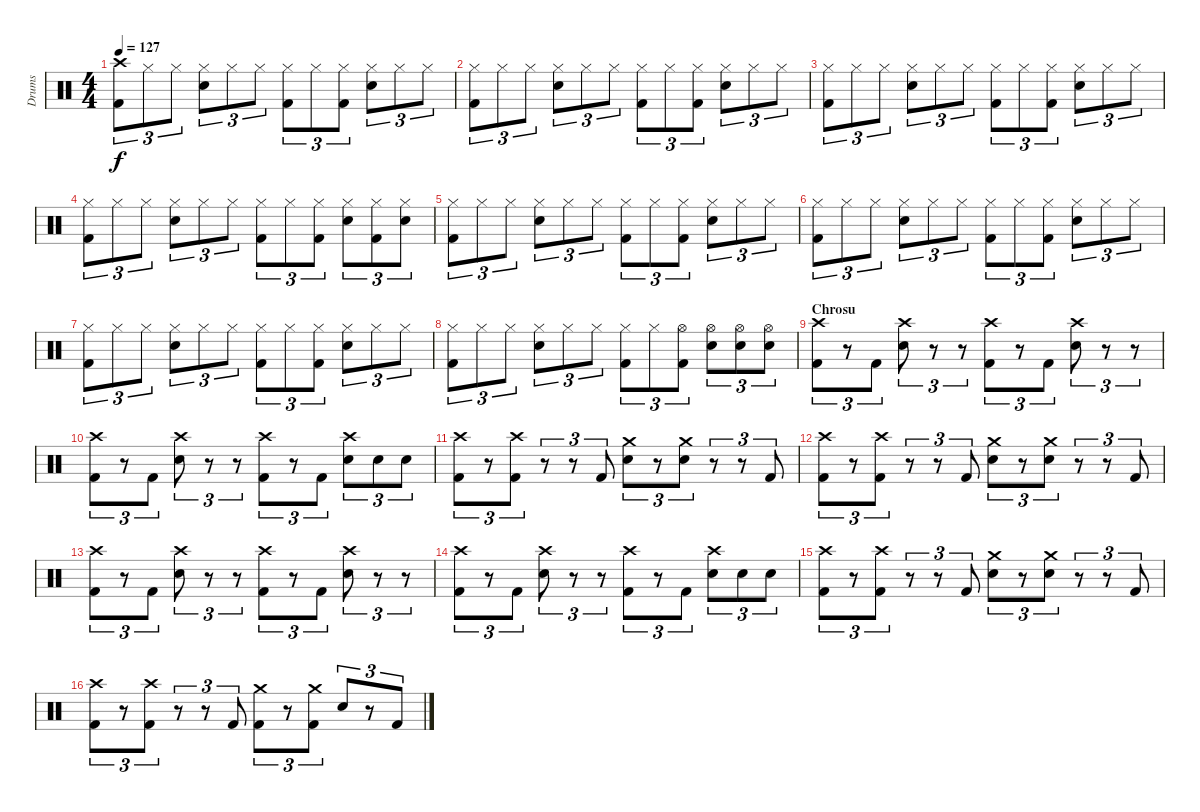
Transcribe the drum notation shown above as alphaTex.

\track ("Drums" "Drums") {instrument percussion}
\staff {score}
\articulation defaults
\ts (4 4)
\tempo 127
\clef neutral
\ks c
("Crash high (hit)" "Kick (hit) 2").8{tu (3 2) dy f} "Hi-Hat (closed)".8{tu (3 2)} "Hi-Hat (closed)".8{tu (3 2)} ("Hi-Hat (closed)" "Electric Snare (hit)").8{tu (3 2)} "Hi-Hat (closed)".8{tu (3 2)} "Hi-Hat (closed)".8{tu (3 2)} ("Hi-Hat (closed)" "Kick (hit) 2").8{tu (3 2)} "Hi-Hat (closed)".8{tu (3 2)} ("Hi-Hat (closed)" "Kick (hit) 2").8{tu (3 2)} ("Hi-Hat (closed)" "Electric Snare (hit)").8{tu (3 2)} "Hi-Hat (closed)".8{tu (3 2)} "Hi-Hat (closed)".8{tu (3 2)} |
("Hi-Hat (closed)" "Kick (hit) 2").8{tu (3 2)} "Hi-Hat (closed)".8{tu (3 2)} "Hi-Hat (closed)".8{tu (3 2)} ("Hi-Hat (closed)" "Electric Snare (hit)").8{tu (3 2)} "Hi-Hat (closed)".8{tu (3 2)} "Hi-Hat (closed)".8{tu (3 2)} ("Hi-Hat (closed)" "Kick (hit) 2").8{tu (3 2)} "Hi-Hat (closed)".8{tu (3 2)} ("Hi-Hat (closed)" "Kick (hit) 2").8{tu (3 2)} ("Hi-Hat (closed)" "Electric Snare (hit)").8{tu (3 2)} "Hi-Hat (closed)".8{tu (3 2)} "Hi-Hat (closed)".8{tu (3 2)} |
("Hi-Hat (closed)" "Kick (hit) 2").8{tu (3 2)} "Hi-Hat (closed)".8{tu (3 2)} "Hi-Hat (closed)".8{tu (3 2)} ("Hi-Hat (closed)" "Electric Snare (hit)").8{tu (3 2)} "Hi-Hat (closed)".8{tu (3 2)} "Hi-Hat (closed)".8{tu (3 2)} ("Hi-Hat (closed)" "Kick (hit) 2").8{tu (3 2)} "Hi-Hat (closed)".8{tu (3 2)} ("Hi-Hat (closed)" "Kick (hit) 2").8{tu (3 2)} ("Hi-Hat (closed)" "Electric Snare (hit)").8{tu (3 2)} "Hi-Hat (closed)".8{tu (3 2)} "Hi-Hat (closed)".8{tu (3 2)} |
("Hi-Hat (closed)" "Kick (hit) 2").8{tu (3 2)} "Hi-Hat (closed)".8{tu (3 2)} "Hi-Hat (closed)".8{tu (3 2)} ("Hi-Hat (closed)" "Electric Snare (hit)").8{tu (3 2)} "Hi-Hat (closed)".8{tu (3 2)} "Hi-Hat (closed)".8{tu (3 2)} ("Hi-Hat (closed)" "Kick (hit) 2").8{tu (3 2)} "Hi-Hat (closed)".8{tu (3 2)} ("Hi-Hat (closed)" "Kick (hit) 2").8{tu (3 2)} ("Hi-Hat (closed)" "Electric Snare (hit)").8{tu (3 2)} ("Hi-Hat (closed)" "Kick (hit) 2").8{tu (3 2)} ("Hi-Hat (closed)" "Electric Snare (hit)").8{tu (3 2)} |
("Hi-Hat (closed)" "Kick (hit) 2").8{tu (3 2)} "Hi-Hat (closed)".8{tu (3 2)} "Hi-Hat (closed)".8{tu (3 2)} ("Hi-Hat (closed)" "Electric Snare (hit)").8{tu (3 2)} "Hi-Hat (closed)".8{tu (3 2)} "Hi-Hat (closed)".8{tu (3 2)} ("Hi-Hat (closed)" "Kick (hit) 2").8{tu (3 2)} "Hi-Hat (closed)".8{tu (3 2)} ("Hi-Hat (closed)" "Kick (hit) 2").8{tu (3 2)} ("Hi-Hat (closed)" "Electric Snare (hit)").8{tu (3 2)} "Hi-Hat (closed)".8{tu (3 2)} "Hi-Hat (closed)".8{tu (3 2)} |
("Hi-Hat (closed)" "Kick (hit) 2").8{tu (3 2)} "Hi-Hat (closed)".8{tu (3 2)} "Hi-Hat (closed)".8{tu (3 2)} ("Hi-Hat (closed)" "Electric Snare (hit)").8{tu (3 2)} "Hi-Hat (closed)".8{tu (3 2)} "Hi-Hat (closed)".8{tu (3 2)} ("Hi-Hat (closed)" "Kick (hit) 2").8{tu (3 2)} "Hi-Hat (closed)".8{tu (3 2)} ("Hi-Hat (closed)" "Kick (hit) 2").8{tu (3 2)} ("Hi-Hat (closed)" "Electric Snare (hit)").8{tu (3 2)} "Hi-Hat (closed)".8{tu (3 2)} "Hi-Hat (closed)".8{tu (3 2)} |
("Hi-Hat (closed)" "Kick (hit) 2").8{tu (3 2)} "Hi-Hat (closed)".8{tu (3 2)} "Hi-Hat (closed)".8{tu (3 2)} ("Hi-Hat (closed)" "Electric Snare (hit)").8{tu (3 2)} "Hi-Hat (closed)".8{tu (3 2)} "Hi-Hat (closed)".8{tu (3 2)} ("Hi-Hat (closed)" "Kick (hit) 2").8{tu (3 2)} "Hi-Hat (closed)".8{tu (3 2)} ("Hi-Hat (closed)" "Kick (hit) 2").8{tu (3 2)} ("Hi-Hat (closed)" "Electric Snare (hit)").8{tu (3 2)} "Hi-Hat (closed)".8{tu (3 2)} "Hi-Hat (closed)".8{tu (3 2)} |
("Hi-Hat (closed)" "Kick (hit) 2").8{tu (3 2)} "Hi-Hat (closed)".8{tu (3 2)} "Hi-Hat (closed)".8{tu (3 2)} ("Hi-Hat (closed)" "Electric Snare (hit)").8{tu (3 2)} "Hi-Hat (closed)".8{tu (3 2)} "Hi-Hat (closed)".8{tu (3 2)} ("Hi-Hat (closed)" "Kick (hit) 2").8{tu (3 2)} "Hi-Hat (closed)".8{tu (3 2)} ("Hi-Hat (open)" "Kick (hit) 2").8{tu (3 2) volume 10} ("Hi-Hat (open)" "Electric Snare (hit)").8{tu (3 2)} ("Hi-Hat (open)" "Electric Snare (hit)").8{tu (3 2)} ("Hi-Hat (open)" "Electric Snare (hit)").8{tu (3 2)} |
\section ("" "Chrosu")
("Crash high (hit)" "Kick (hit) 2").8{tu (3 2) volume 13} r.8{tu (3 2)} "Kick (hit) 2".8{tu (3 2)} ("Crash high (hit)" "Electric Snare (hit)").8{tu (3 2)} r.8{tu (3 2)} r.8{tu (3 2)} ("Crash high (hit)" "Kick (hit) 2").8{tu (3 2)} r.8{tu (3 2)} "Kick (hit) 2".8{tu (3 2)} ("Crash high (hit)" "Electric Snare (hit)").8{tu (3 2)} r.8{tu (3 2)} r.8{tu (3 2)} |
("Crash high (hit)" "Kick (hit) 2").8{tu (3 2)} r.8{tu (3 2)} "Kick (hit) 2".8{tu (3 2)} ("Crash high (hit)" "Electric Snare (hit)").8{tu (3 2)} r.8{tu (3 2)} r.8{tu (3 2)} ("Crash high (hit)" "Kick (hit) 2").8{tu (3 2)} r.8{tu (3 2)} "Kick (hit) 2".8{tu (3 2)} ("Crash high (hit)" "Electric Snare (hit)").8{tu (3 2)} "Electric Snare (hit)".8{tu (3 2)} "Electric Snare (hit)".8{tu (3 2)} |
("Crash high (hit)" "Kick (hit) 2").8{tu (3 2)} r.8{tu (3 2)} ("Crash high (hit)" "Kick (hit) 2").8{tu (3 2)} r.8{tu (3 2)} r.8{tu (3 2)} "Kick (hit) 2".8{tu (3 2)} ("Crash medium (hit)" "Electric Snare (hit)").8{tu (3 2)} r.8{tu (3 2)} ("Crash medium (hit)" "Electric Snare (hit)").8{tu (3 2)} r.8{tu (3 2)} r.8{tu (3 2)} "Kick (hit) 2".8{tu (3 2)} |
("Crash high (hit)" "Kick (hit) 2").8{tu (3 2)} r.8{tu (3 2)} ("Crash high (hit)" "Kick (hit) 2").8{tu (3 2)} r.8{tu (3 2)} r.8{tu (3 2)} "Kick (hit) 2".8{tu (3 2)} ("Crash medium (hit)" "Electric Snare (hit)").8{tu (3 2)} r.8{tu (3 2)} ("Crash medium (hit)" "Electric Snare (hit)").8{tu (3 2)} r.8{tu (3 2)} r.8{tu (3 2)} "Kick (hit) 2".8{tu (3 2)} |
("Crash high (hit)" "Kick (hit) 2").8{tu (3 2)} r.8{tu (3 2)} "Kick (hit) 2".8{tu (3 2)} ("Crash high (hit)" "Electric Snare (hit)").8{tu (3 2)} r.8{tu (3 2)} r.8{tu (3 2)} ("Crash high (hit)" "Kick (hit) 2").8{tu (3 2)} r.8{tu (3 2)} "Kick (hit) 2".8{tu (3 2)} ("Crash high (hit)" "Electric Snare (hit)").8{tu (3 2)} r.8{tu (3 2)} r.8{tu (3 2)} |
("Crash high (hit)" "Kick (hit) 2").8{tu (3 2)} r.8{tu (3 2)} "Kick (hit) 2".8{tu (3 2)} ("Crash high (hit)" "Electric Snare (hit)").8{tu (3 2)} r.8{tu (3 2)} r.8{tu (3 2)} ("Crash high (hit)" "Kick (hit) 2").8{tu (3 2)} r.8{tu (3 2)} "Kick (hit) 2".8{tu (3 2)} ("Crash high (hit)" "Electric Snare (hit)").8{tu (3 2)} "Electric Snare (hit)".8{tu (3 2)} "Electric Snare (hit)".8{tu (3 2)} |
("Crash high (hit)" "Kick (hit) 2").8{tu (3 2)} r.8{tu (3 2)} ("Crash high (hit)" "Kick (hit) 2").8{tu (3 2)} r.8{tu (3 2)} r.8{tu (3 2)} "Kick (hit) 2".8{tu (3 2)} ("Crash medium (hit)" "Electric Snare (hit)").8{tu (3 2)} r.8{tu (3 2)} ("Crash medium (hit)" "Electric Snare (hit)").8{tu (3 2)} r.8{tu (3 2)} r.8{tu (3 2)} "Kick (hit) 2".8{tu (3 2)} |
("Crash high (hit)" "Kick (hit) 2").8{tu (3 2)} r.8{tu (3 2)} ("Crash high (hit)" "Kick (hit) 2").8{tu (3 2)} r.8{tu (3 2)} r.8{tu (3 2)} "Kick (hit) 2".8{tu (3 2)} ("Crash medium (hit)" "Kick (hit) 2").8{tu (3 2)} r.8{tu (3 2)} ("Crash medium (hit)" "Kick (hit) 2").8{tu (3 2)} "Electric Snare (hit)".8{tu (3 2)} r.8{tu (3 2)} "Kick (hit) 2".8{tu (3 2)}
